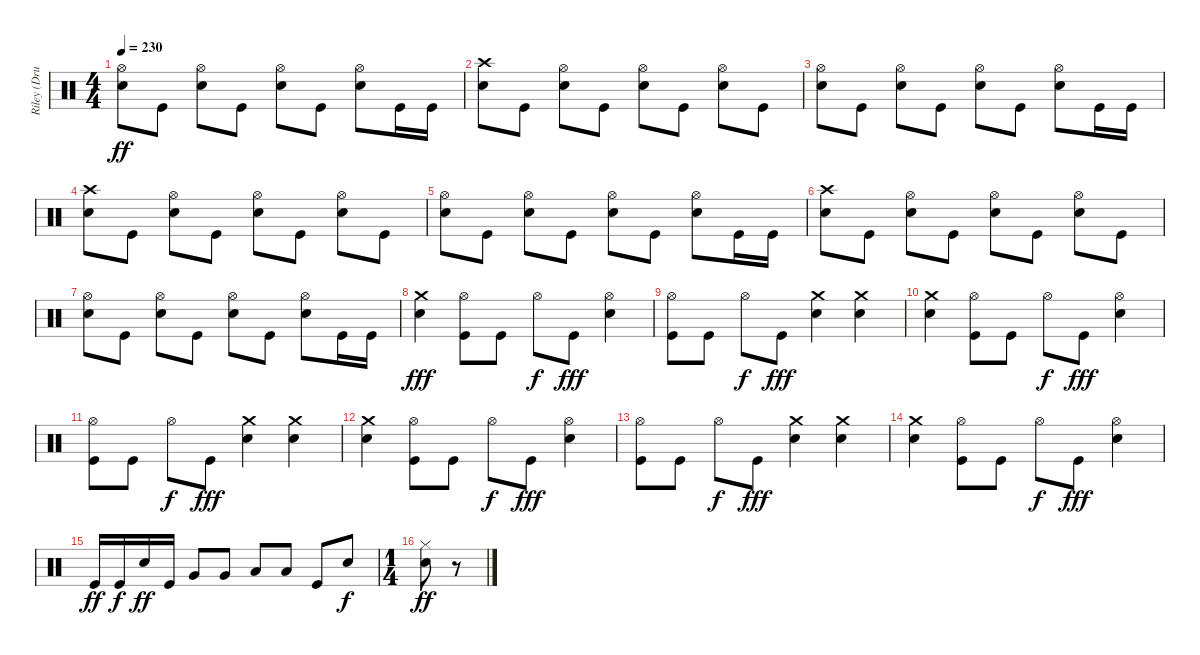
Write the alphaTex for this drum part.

\track ("Riley (Drums)" "Riley (Dru") {instrument percussion}
\staff {score}
\articulation defaults
\ts (4 4)
\tempo 230
\clef neutral
\ks c
("Hi-Hat (open)" "Electric Snare (hit)").8{dy ff} "Kick (hit)".8 ("Hi-Hat (open)" "Electric Snare (hit)").8 "Kick (hit)".8 ("Hi-Hat (open)" "Electric Snare (hit)").8 "Kick (hit)".8 ("Hi-Hat (open)" "Electric Snare (hit)").8 "Kick (hit)".16 "Kick (hit)".16 |
("Crash high (hit)" "Electric Snare (hit)").8 "Kick (hit)".8 ("Hi-Hat (open)" "Electric Snare (hit)").8 "Kick (hit)".8 ("Hi-Hat (open)" "Electric Snare (hit)").8 "Kick (hit)".8 ("Hi-Hat (open)" "Electric Snare (hit)").8 "Kick (hit)".8 |
("Hi-Hat (open)" "Electric Snare (hit)").8 "Kick (hit)".8 ("Hi-Hat (open)" "Electric Snare (hit)").8 "Kick (hit)".8 ("Hi-Hat (open)" "Electric Snare (hit)").8 "Kick (hit)".8 ("Hi-Hat (open)" "Electric Snare (hit)").8 "Kick (hit)".16 "Kick (hit)".16 |
("Crash high (hit)" "Electric Snare (hit)").8 "Kick (hit)".8 ("Hi-Hat (open)" "Electric Snare (hit)").8 "Kick (hit)".8 ("Hi-Hat (open)" "Electric Snare (hit)").8 "Kick (hit)".8 ("Hi-Hat (open)" "Electric Snare (hit)").8 "Kick (hit)".8 |
("Hi-Hat (open)" "Electric Snare (hit)").8 "Kick (hit)".8 ("Hi-Hat (open)" "Electric Snare (hit)").8 "Kick (hit)".8 ("Hi-Hat (open)" "Electric Snare (hit)").8 "Kick (hit)".8 ("Hi-Hat (open)" "Electric Snare (hit)").8 "Kick (hit)".16 "Kick (hit)".16 |
("Crash high (hit)" "Electric Snare (hit)").8 "Kick (hit)".8 ("Hi-Hat (open)" "Electric Snare (hit)").8 "Kick (hit)".8 ("Hi-Hat (open)" "Electric Snare (hit)").8 "Kick (hit)".8 ("Hi-Hat (open)" "Electric Snare (hit)").8 "Kick (hit)".8 |
("Hi-Hat (open)" "Electric Snare (hit)").8 "Kick (hit)".8 ("Hi-Hat (open)" "Electric Snare (hit)").8 "Kick (hit)".8 ("Hi-Hat (open)" "Electric Snare (hit)").8 "Kick (hit)".8 ("Hi-Hat (open)" "Electric Snare (hit)").8 "Kick (hit)".16 "Kick (hit)".16 |
("Crash medium (hit)" "Electric Snare (hit)").4{dy fff} ("Hi-Hat (open)" "Kick (hit)").8 "Kick (hit)".8 "Hi-Hat (open)".8{dy f} "Kick (hit)".8{dy fff} ("Hi-Hat (open)" "Electric Snare (hit)").4 |
("Hi-Hat (open)" "Kick (hit)").8 "Kick (hit)".8 "Hi-Hat (open)".8{dy f} "Kick (hit)".8{dy fff} ("Crash medium (hit)" "Electric Snare (hit)").4 ("Crash medium (hit)" "Electric Snare (hit)").4 |
("Crash medium (hit)" "Electric Snare (hit)").4 ("Hi-Hat (open)" "Kick (hit)").8 "Kick (hit)".8 "Hi-Hat (open)".8{dy f} "Kick (hit)".8{dy fff} ("Hi-Hat (open)" "Electric Snare (hit)").4 |
("Hi-Hat (open)" "Kick (hit)").8 "Kick (hit)".8 "Hi-Hat (open)".8{dy f} "Kick (hit)".8{dy fff} ("Crash medium (hit)" "Electric Snare (hit)").4 ("Crash medium (hit)" "Electric Snare (hit)").4 |
("Crash medium (hit)" "Electric Snare (hit)").4 ("Hi-Hat (open)" "Kick (hit)").8 "Kick (hit)".8 "Hi-Hat (open)".8{dy f} "Kick (hit)".8{dy fff} ("Hi-Hat (open)" "Electric Snare (hit)").4 |
("Hi-Hat (open)" "Kick (hit)").8 "Kick (hit)".8 "Hi-Hat (open)".8{dy f} "Kick (hit)".8{dy fff} ("Crash medium (hit)" "Electric Snare (hit)").4 ("Crash medium (hit)" "Electric Snare (hit)").4 |
("Crash medium (hit)" "Electric Snare (hit)").4 ("Hi-Hat (open)" "Kick (hit)").8 "Kick (hit)".8 "Hi-Hat (open)".8{dy f} "Kick (hit)".8{dy fff} ("Hi-Hat (open)" "Electric Snare (hit)").4 |
"Kick (hit)".16{dy ff} "Kick (hit)".16{dy f} "Electric Snare (hit)".16{dy ff} "Kick (hit)".16 "Very Low Tom (hit)".8 "Very Low Tom (hit)".8 "Low Floor Tom (hit)".8 "Low Floor Tom (hit)".8 "Kick (hit)".8 "Electric Snare (hit)".8{dy f} |
\ts (1 4)
("Hi-Hat (closed)" "Electric Snare (hit)").8{dy ff} r.8
